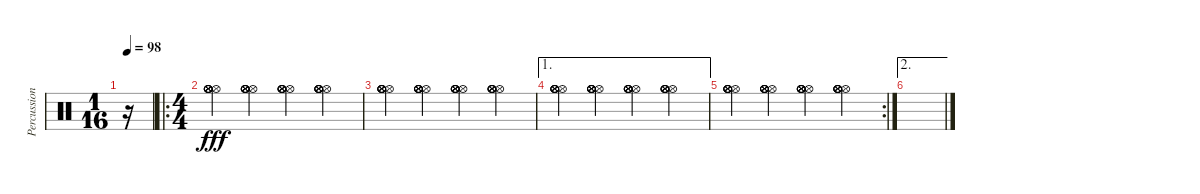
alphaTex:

\track ("Percussion" "Percussion") {instrument percussion}
\staff {score}
\articulation defaults
\ts (1 16)
\tempo 98
\clef neutral
\ks c
r.16{dy fff} |
\ro
\ts (4 4)
("Hi-Hat (open)" "Hi-Hat (open)" "Hi-Hat (open)" "Hi-Hat (open)" "Hi-Hat (open)" "Hi-Hat (open)").4 ("Hi-Hat (open)" "Hi-Hat (open)" "Hi-Hat (open)" "Hi-Hat (open)" "Hi-Hat (open)" "Hi-Hat (open)").4 ("Hi-Hat (open)" "Hi-Hat (open)" "Hi-Hat (open)" "Hi-Hat (open)" "Hi-Hat (open)" "Hi-Hat (open)").4 ("Hi-Hat (open)" "Hi-Hat (open)" "Hi-Hat (open)" "Hi-Hat (open)" "Hi-Hat (open)" "Hi-Hat (open)").4 |
("Hi-Hat (open)" "Hi-Hat (open)" "Hi-Hat (open)" "Hi-Hat (open)" "Hi-Hat (open)" "Hi-Hat (open)").4 ("Hi-Hat (open)" "Hi-Hat (open)" "Hi-Hat (open)" "Hi-Hat (open)" "Hi-Hat (open)" "Hi-Hat (open)").4 ("Hi-Hat (open)" "Hi-Hat (open)" "Hi-Hat (open)" "Hi-Hat (open)" "Hi-Hat (open)" "Hi-Hat (open)").4 ("Hi-Hat (open)" "Hi-Hat (open)" "Hi-Hat (open)" "Hi-Hat (open)" "Hi-Hat (open)" "Hi-Hat (open)").4 |
\ae 1
("Hi-Hat (open)" "Hi-Hat (open)" "Hi-Hat (open)" "Hi-Hat (open)" "Hi-Hat (open)" "Hi-Hat (open)").4 ("Hi-Hat (open)" "Hi-Hat (open)" "Hi-Hat (open)" "Hi-Hat (open)" "Hi-Hat (open)" "Hi-Hat (open)").4 ("Hi-Hat (open)" "Hi-Hat (open)" "Hi-Hat (open)" "Hi-Hat (open)" "Hi-Hat (open)" "Hi-Hat (open)").4 ("Hi-Hat (open)" "Hi-Hat (open)" "Hi-Hat (open)" "Hi-Hat (open)" "Hi-Hat (open)" "Hi-Hat (open)").4 |
\rc 2
("Hi-Hat (open)" "Hi-Hat (open)" "Hi-Hat (open)" "Hi-Hat (open)" "Hi-Hat (open)" "Hi-Hat (open)").4 ("Hi-Hat (open)" "Hi-Hat (open)" "Hi-Hat (open)" "Hi-Hat (open)" "Hi-Hat (open)" "Hi-Hat (open)").4 ("Hi-Hat (open)" "Hi-Hat (open)" "Hi-Hat (open)" "Hi-Hat (open)" "Hi-Hat (open)" "Hi-Hat (open)").4 ("Hi-Hat (open)" "Hi-Hat (open)" "Hi-Hat (open)" "Hi-Hat (open)" "Hi-Hat (open)" "Hi-Hat (open)").4 |
\ae 2
